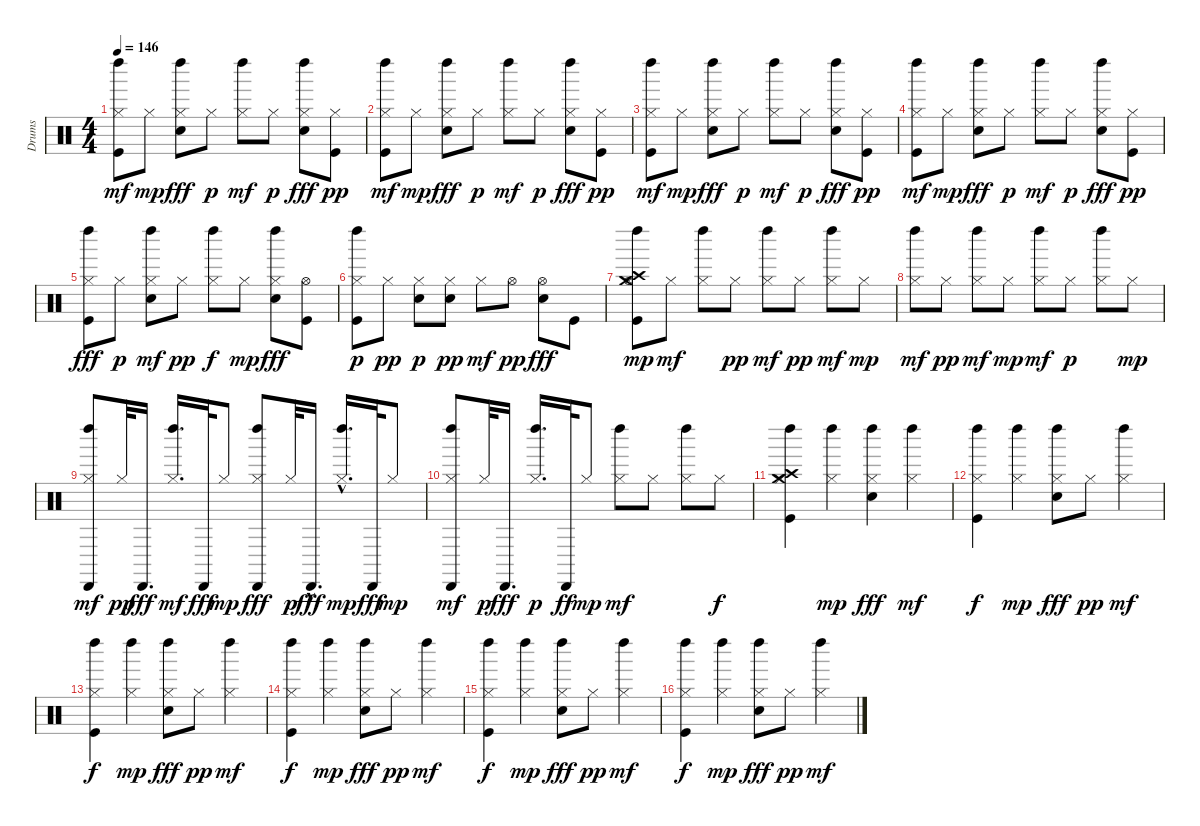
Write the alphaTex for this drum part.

\track ("Drums" "Drums") {instrument percussion}
\staff {score}
\articulation defaults
\ts (4 4)
\tempo 146
\clef neutral
\ks c
("Hi-Hat (closed)" "Kick (hit)" "Left Maraca (hit)").8{dy mf} "Hi-Hat (closed)".8{dy mp} ("Hi-Hat (closed)" "Electric Snare (hit)" "Left Maraca (hit)").8{dy fff} "Hi-Hat (closed)".8{dy p} ("Hi-Hat (closed)" "Left Maraca (hit)").8{dy mf} "Hi-Hat (closed)".8{dy p} ("Hi-Hat (closed)" "Electric Snare (hit)" "Left Maraca (hit)").8{dy fff} ("Kick (hit)" "Hi-Hat (closed)").8{dy pp} |
("Hi-Hat (closed)" "Kick (hit)" "Left Maraca (hit)").8{dy mf} "Hi-Hat (closed)".8{dy mp} ("Hi-Hat (closed)" "Electric Snare (hit)" "Left Maraca (hit)").8{dy fff} "Hi-Hat (closed)".8{dy p} ("Hi-Hat (closed)" "Left Maraca (hit)").8{dy mf} "Hi-Hat (closed)".8{dy p} ("Hi-Hat (closed)" "Electric Snare (hit)" "Left Maraca (hit)").8{dy fff} ("Kick (hit)" "Hi-Hat (closed)").8{dy pp} |
("Hi-Hat (closed)" "Kick (hit)" "Left Maraca (hit)").8{dy mf} "Hi-Hat (closed)".8{dy mp} ("Hi-Hat (closed)" "Electric Snare (hit)" "Left Maraca (hit)").8{dy fff} "Hi-Hat (closed)".8{dy p} ("Hi-Hat (closed)" "Left Maraca (hit)").8{dy mf} "Hi-Hat (closed)".8{dy p} ("Hi-Hat (closed)" "Electric Snare (hit)" "Left Maraca (hit)").8{dy fff} ("Kick (hit)" "Hi-Hat (closed)").8{dy pp} |
("Hi-Hat (closed)" "Kick (hit)" "Left Maraca (hit)").8{dy mf} "Hi-Hat (closed)".8{dy mp} ("Hi-Hat (closed)" "Electric Snare (hit)" "Left Maraca (hit)").8{dy fff} "Hi-Hat (closed)".8{dy p} ("Hi-Hat (closed)" "Left Maraca (hit)").8{dy mf} "Hi-Hat (closed)".8{dy p} ("Hi-Hat (closed)" "Electric Snare (hit)" "Left Maraca (hit)").8{dy fff} ("Kick (hit)" "Hi-Hat (closed)").8{dy pp} |
("Hi-Hat (closed)" "Left Maraca (hit)" "Kick (hit)").8{dy fff} "Hi-Hat (closed)".8{dy p} ("Hi-Hat (closed)" "Electric Snare (hit)" "Left Maraca (hit)").8{dy mf} "Hi-Hat (closed)".8{dy pp} ("Hi-Hat (closed)" "Left Maraca (hit)").8{dy f} "Hi-Hat (closed)".8{dy mp} ("Hi-Hat (closed)" "Electric Snare (hit)" "Left Maraca (hit)").8{dy fff} ("Hi-Hat (open)" "Kick (hit)").8 |
("Left Maraca (hit)" "Kick (hit)" "Hi-Hat (closed)").8{dy p} "Hi-Hat (closed)".8{dy pp} ("Electric Snare (hit)" "Hi-Hat (closed)").8{dy p} ("Electric Snare (hit)" "Hi-Hat (closed)").8{dy pp} "Hi-Hat (closed)".8{dy mf} "Hi-Hat (open)".8{dy pp} ("Hi-Hat (open)" "Electric Snare (hit)").8{dy fff} "Kick (hit)".8 |
("Hi-Hat (open)" "Kick (hit)" "Crash high (hit)" "Crash medium (hit)" "Left Maraca (hit)").8{dy mp} "Hi-Hat (closed)".8{dy mf} ("Hi-Hat (closed)" "Left Maraca (hit)").8 "Hi-Hat (closed)".8{dy pp} ("Hi-Hat (closed)" "Left Maraca (hit)").8{dy mf} "Hi-Hat (closed)".8{dy pp} ("Hi-Hat (closed)" "Left Maraca (hit)").8{dy mf} "Hi-Hat (closed)".8{dy mp} |
("Left Maraca (hit)" "Hi-Hat (closed)").8{dy mf} "Hi-Hat (closed)".8{dy pp} ("Hi-Hat (closed)" "Left Maraca (hit)").8{dy mf} "Hi-Hat (closed)".8{dy mp} ("Left Maraca (hit)" "Hi-Hat (closed)").8{dy mf} "Hi-Hat (closed)".8{dy p} ("Left Maraca (hit)" "Hi-Hat (closed)").8 "Hi-Hat (closed)".8{dy mp} |
("Cabasa (hit)" "Left Maraca (hit)" "Hi-Hat (closed)").8{dy mf} "Hi-Hat (closed)".32{dy pp} "Cabasa (hit)".16{d dy fff} ("Hi-Hat (closed)" "Left Maraca (hit)").16{d dy mf} "Cabasa (hit)".32{dy fff} "Hi-Hat (closed)".8{dy mp} ("Left Maraca (hit)" "Cabasa (hit)" "Hi-Hat (closed)").8{dy fff} "Hi-Hat (closed)".32{dy p} "Cabasa (hit)"{hac}.16{d dy fff} ("Left Maraca (hit)"{hac} "Hi-Hat (closed)"{hac}).16{d dy mp} "Cabasa (hit)".32{dy fff} "Hi-Hat (closed)".8{dy mp} |
("Cabasa (hit)" "Left Maraca (hit)" "Hi-Hat (closed)").8{dy mf} "Hi-Hat (closed)".32{dy p} "Cabasa (hit)".16{d dy fff} ("Left Maraca (hit)" "Hi-Hat (closed)").16{d dy p} "Cabasa (hit)".32{dy ff} "Hi-Hat (closed)".8{dy mp} ("Hi-Hat (closed)" "Left Maraca (hit)").8{dy mf} "Hi-Hat (closed)".8 ("Hi-Hat (closed)" "Left Maraca (hit)").8 "Hi-Hat (closed)".8{dy f} |
("Crash high (hit)" "Crash medium (hit)" "Left Maraca (hit)" "Kick (hit)" "Hi-Hat (closed)").4 ("Left Maraca (hit)" "Hi-Hat (closed)").4{dy mp} ("Left Maraca (hit)" "Electric Snare (hit)" "Hi-Hat (closed)").4{dy fff} ("Hi-Hat (closed)" "Left Maraca (hit)").4{dy mf} |
("Kick (hit)" "Hi-Hat (closed)" "Left Maraca (hit)").4{dy f} ("Hi-Hat (closed)" "Left Maraca (hit)").4{dy mp} ("Hi-Hat (closed)" "Left Maraca (hit)" "Electric Snare (hit)").8{dy fff} "Hi-Hat (closed)".8{dy pp} ("Left Maraca (hit)" "Hi-Hat (closed)").4{dy mf} |
("Kick (hit)" "Hi-Hat (closed)" "Left Maraca (hit)").4{dy f} ("Hi-Hat (closed)" "Left Maraca (hit)").4{dy mp} ("Hi-Hat (closed)" "Left Maraca (hit)" "Electric Snare (hit)").8{dy fff} "Hi-Hat (closed)".8{dy pp} ("Left Maraca (hit)" "Hi-Hat (closed)").4{dy mf} |
("Kick (hit)" "Hi-Hat (closed)" "Left Maraca (hit)").4{dy f} ("Hi-Hat (closed)" "Left Maraca (hit)").4{dy mp} ("Hi-Hat (closed)" "Left Maraca (hit)" "Electric Snare (hit)").8{dy fff} "Hi-Hat (closed)".8{dy pp} ("Left Maraca (hit)" "Hi-Hat (closed)").4{dy mf} |
("Kick (hit)" "Hi-Hat (closed)" "Left Maraca (hit)").4{dy f} ("Hi-Hat (closed)" "Left Maraca (hit)").4{dy mp} ("Hi-Hat (closed)" "Left Maraca (hit)" "Electric Snare (hit)").8{dy fff} "Hi-Hat (closed)".8{dy pp} ("Left Maraca (hit)" "Hi-Hat (closed)").4{dy mf} |
("Kick (hit)" "Hi-Hat (closed)" "Left Maraca (hit)").4{dy f} ("Hi-Hat (closed)" "Left Maraca (hit)").4{dy mp} ("Hi-Hat (closed)" "Left Maraca (hit)" "Electric Snare (hit)").8{dy fff} "Hi-Hat (closed)".8{dy pp} ("Left Maraca (hit)" "Hi-Hat (closed)").4{dy mf}
